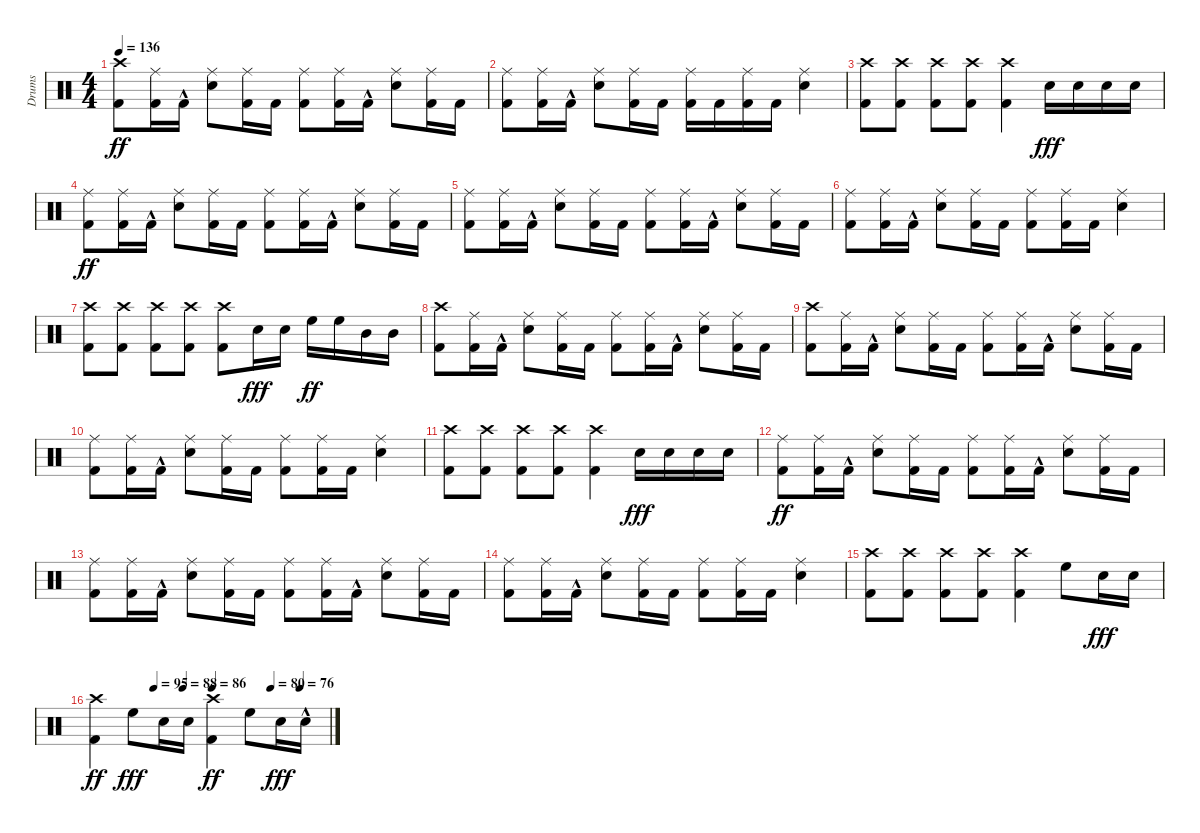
\track ("Drums" "Drums") {instrument percussion}
\staff {score}
\articulation defaults
\ts (4 4)
\tempo 136
\clef neutral
\ks c
("Kick (hit) 2" "Crash high (hit)").8{dy ff} ("Kick (hit) 2" "Ride (middle)").16 "Kick (hit) 2"{hac}.16 ("Snare (hit) 2" "Ride (middle)").8 ("Kick (hit) 2" "Ride (middle)").16 "Kick (hit) 2".16 ("Kick (hit) 2" "Ride (middle)").8 ("Kick (hit) 2" "Ride (middle)").16 "Kick (hit) 2"{hac}.16 ("Snare (hit) 2" "Ride (middle)").8 ("Kick (hit) 2" "Ride (middle)").16 "Kick (hit) 2".16 |
("Kick (hit) 2" "Ride (middle)").8 ("Kick (hit) 2" "Ride (middle)").16 "Kick (hit) 2"{hac}.16 ("Snare (hit) 2" "Ride (middle)").8 ("Kick (hit) 2" "Ride (middle)").16 "Kick (hit) 2".16 ("Kick (hit) 2" "Ride (middle)").16 "Kick (hit) 2".16 ("Kick (hit) 2" "Ride (middle)").16 "Kick (hit) 2".16 ("Snare (hit) 2" "Ride (middle)").4 |
("Kick (hit) 2" "Crash high (hit)").8 ("Kick (hit) 2" "Crash high (hit)").8 ("Kick (hit) 2" "Crash high (hit)").8 ("Kick (hit) 2" "Crash high (hit)").8 ("Kick (hit) 2" "Crash high (hit)").4 "Snare (hit) 2".16{dy fff} "Snare (hit) 2".16 "Snare (hit) 2".16 "Snare (hit) 2".16 |
("Kick (hit) 2" "Ride (middle)").8{dy ff} ("Kick (hit) 2" "Ride (middle)").16 "Kick (hit) 2"{hac}.16 ("Snare (hit) 2" "Ride (middle)").8 ("Kick (hit) 2" "Ride (middle)").16 "Kick (hit) 2".16 ("Kick (hit) 2" "Ride (middle)").8 ("Kick (hit) 2" "Ride (middle)").16 "Kick (hit) 2"{hac}.16 ("Snare (hit) 2" "Ride (middle)").8 ("Kick (hit) 2" "Ride (middle)").16 "Kick (hit) 2".16 |
("Kick (hit) 2" "Ride (middle)").8 ("Kick (hit) 2" "Ride (middle)").16 "Kick (hit) 2"{hac}.16 ("Snare (hit) 2" "Ride (middle)").8 ("Kick (hit) 2" "Ride (middle)").16 "Kick (hit) 2".16 ("Kick (hit) 2" "Ride (middle)").8 ("Kick (hit) 2" "Ride (middle)").16 "Kick (hit) 2"{hac}.16 ("Snare (hit) 2" "Ride (middle)").8 ("Kick (hit) 2" "Ride (middle)").16 "Kick (hit) 2".16 |
("Kick (hit) 2" "Ride (middle)").8 ("Kick (hit) 2" "Ride (middle)").16 "Kick (hit) 2"{hac}.16 ("Snare (hit) 2" "Ride (middle)").8 ("Kick (hit) 2" "Ride (middle)").16 "Kick (hit) 2".16 ("Kick (hit) 2" "Ride (middle)").8 ("Kick (hit) 2" "Ride (middle)").16 "Kick (hit) 2".16 ("Snare (hit) 2" "Ride (middle)").4 |
("Kick (hit) 2" "Crash high (hit)").8 ("Kick (hit) 2" "Crash high (hit)").8 ("Kick (hit) 2" "Crash high (hit)").8 ("Kick (hit) 2" "Crash high (hit)").8 ("Kick (hit) 2" "Crash high (hit)").8 "Snare (hit) 2".16{dy fff} "Snare (hit) 2".16 "High Floor Tom (hit)".16{dy ff} "High Floor Tom (hit)".16 "Mid Tom (hit)".16 "Mid Tom (hit)".16 |
("Kick (hit) 2" "Crash high (hit)").8 ("Kick (hit) 2" "Ride (middle)").16 "Kick (hit) 2"{hac}.16 ("Snare (hit) 2" "Ride (middle)").8 ("Kick (hit) 2" "Ride (middle)").16 "Kick (hit) 2".16 ("Kick (hit) 2" "Ride (middle)").8 ("Kick (hit) 2" "Ride (middle)").16 "Kick (hit) 2"{hac}.16 ("Snare (hit) 2" "Ride (middle)").8 ("Kick (hit) 2" "Ride (middle)").16 "Kick (hit) 2".16 |
("Kick (hit) 2" "Crash high (hit)").8 ("Kick (hit) 2" "Ride (middle)").16 "Kick (hit) 2"{hac}.16 ("Snare (hit) 2" "Ride (middle)").8 ("Kick (hit) 2" "Ride (middle)").16 "Kick (hit) 2".16 ("Kick (hit) 2" "Ride (middle)").8 ("Kick (hit) 2" "Ride (middle)").16 "Kick (hit) 2"{hac}.16 ("Snare (hit) 2" "Ride (middle)").8 ("Kick (hit) 2" "Ride (middle)").16 "Kick (hit) 2".16 |
("Kick (hit) 2" "Ride (middle)").8 ("Kick (hit) 2" "Ride (middle)").16 "Kick (hit) 2"{hac}.16 ("Snare (hit) 2" "Ride (middle)").8 ("Kick (hit) 2" "Ride (middle)").16 "Kick (hit) 2".16 ("Kick (hit) 2" "Ride (middle)").8 ("Kick (hit) 2" "Ride (middle)").16 "Kick (hit) 2".16 ("Snare (hit) 2" "Ride (middle)").4 |
("Kick (hit) 2" "Crash high (hit)").8 ("Kick (hit) 2" "Crash high (hit)").8 ("Kick (hit) 2" "Crash high (hit)").8 ("Kick (hit) 2" "Crash high (hit)").8 ("Kick (hit) 2" "Crash high (hit)").4 "Snare (hit) 2".16{dy fff} "Snare (hit) 2".16 "Snare (hit) 2".16 "Snare (hit) 2".16 |
("Kick (hit) 2" "Ride (middle)").8{dy ff} ("Kick (hit) 2" "Ride (middle)").16 "Kick (hit) 2"{hac}.16 ("Snare (hit) 2" "Ride (middle)").8 ("Kick (hit) 2" "Ride (middle)").16 "Kick (hit) 2".16 ("Kick (hit) 2" "Ride (middle)").8 ("Kick (hit) 2" "Ride (middle)").16 "Kick (hit) 2"{hac}.16 ("Snare (hit) 2" "Ride (middle)").8 ("Kick (hit) 2" "Ride (middle)").16 "Kick (hit) 2".16 |
("Kick (hit) 2" "Ride (middle)").8 ("Kick (hit) 2" "Ride (middle)").16 "Kick (hit) 2"{hac}.16 ("Snare (hit) 2" "Ride (middle)").8 ("Kick (hit) 2" "Ride (middle)").16 "Kick (hit) 2".16 ("Kick (hit) 2" "Ride (middle)").8 ("Kick (hit) 2" "Ride (middle)").16 "Kick (hit) 2"{hac}.16 ("Snare (hit) 2" "Ride (middle)").8 ("Kick (hit) 2" "Ride (middle)").16 "Kick (hit) 2".16 |
("Kick (hit) 2" "Ride (middle)").8 ("Kick (hit) 2" "Ride (middle)").16 "Kick (hit) 2"{hac}.16 ("Snare (hit) 2" "Ride (middle)").8 ("Kick (hit) 2" "Ride (middle)").16 "Kick (hit) 2".16 ("Kick (hit) 2" "Ride (middle)").8 ("Kick (hit) 2" "Ride (middle)").16 "Kick (hit) 2".16 ("Snare (hit) 2" "Ride (middle)").4 |
("Kick (hit) 2" "Crash high (hit)").8 ("Kick (hit) 2" "Crash high (hit)").8 ("Kick (hit) 2" "Crash high (hit)").8 ("Kick (hit) 2" "Crash high (hit)").8 ("Kick (hit) 2" "Crash high (hit)").4 "High Floor Tom (hit)".8 "Snare (hit) 2".16{dy fff} "Snare (hit) 2".16 |
\tempo (95 0.25)
\tempo (88 0.375)
\tempo (86 0.5)
\tempo (80 0.75)
\tempo (76 0.875)
("Kick (hit) 2" "Crash high (hit)").4{dy ff} "High Floor Tom (hit)".8{dy fff} "Snare (hit) 2".16 "Snare (hit) 2".16 ("Kick (hit) 2" "Crash high (hit)").4{dy ff} "High Floor Tom (hit)".8 "Snare (hit) 2".16{dy fff} "Snare (hit) 2"{hac}.16
